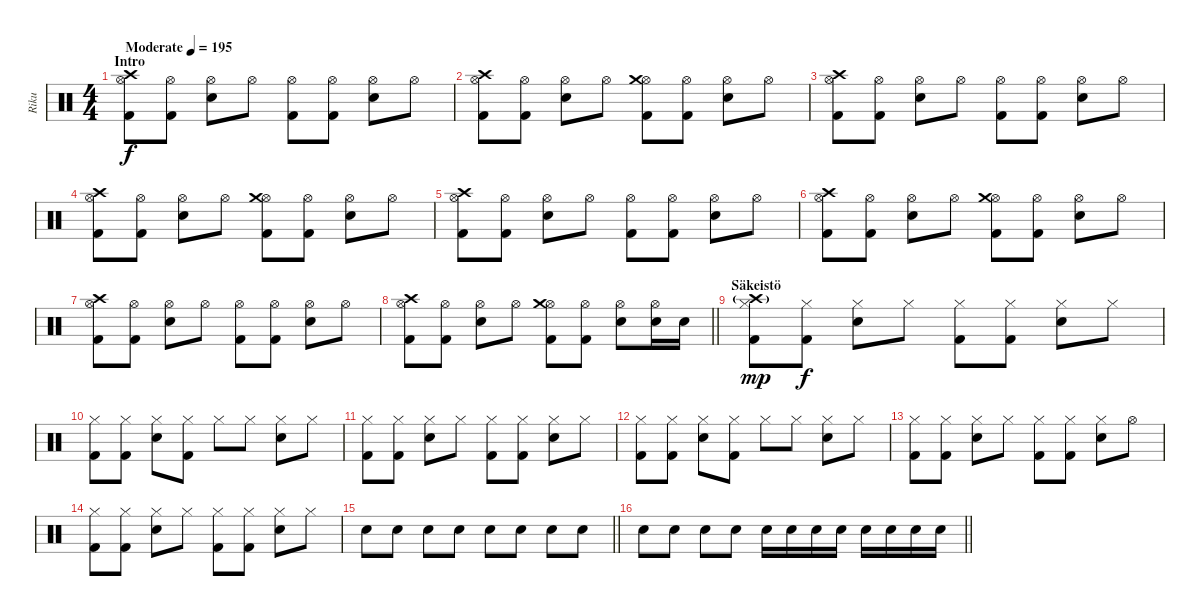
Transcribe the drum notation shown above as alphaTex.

\track ("Riku" "Riku") {instrument percussion}
\staff {score}
\articulation defaults
\ts (4 4)
\section ("" "Intro")
\tempo (195 "Moderate")
\clef neutral
\ks c
("Hi-Hat (open)" "Kick (hit) 2" "Crash high (hit)").8{dy f} ("Hi-Hat (open)" "Kick (hit) 2").8 ("Hi-Hat (open)" "Snare (hit) 2").8 "Hi-Hat (open)".8 ("Hi-Hat (open)" "Kick (hit) 2").8 ("Hi-Hat (open)" "Kick (hit) 2").8 ("Hi-Hat (open)" "Snare (hit) 2").8 "Hi-Hat (open)".8 |
("Hi-Hat (open)" "Kick (hit) 2" "Crash high (hit)").8 ("Hi-Hat (open)" "Kick (hit) 2").8 ("Hi-Hat (open)" "Snare (hit) 2").8 "Hi-Hat (open)".8 ("Hi-Hat (open)" "Kick (hit) 2" "Crash medium (hit)").8 ("Hi-Hat (open)" "Kick (hit) 2").8 ("Hi-Hat (open)" "Snare (hit) 2").8 "Hi-Hat (open)".8 |
("Hi-Hat (open)" "Kick (hit) 2" "Crash high (hit)").8 ("Hi-Hat (open)" "Kick (hit) 2").8 ("Hi-Hat (open)" "Snare (hit) 2").8 "Hi-Hat (open)".8 ("Hi-Hat (open)" "Kick (hit) 2").8 ("Hi-Hat (open)" "Kick (hit) 2").8 ("Hi-Hat (open)" "Snare (hit) 2").8 "Hi-Hat (open)".8 |
("Hi-Hat (open)" "Kick (hit) 2" "Crash high (hit)").8 ("Hi-Hat (open)" "Kick (hit) 2").8 ("Hi-Hat (open)" "Snare (hit) 2").8 "Hi-Hat (open)".8 ("Hi-Hat (open)" "Kick (hit) 2" "Crash medium (hit)").8 ("Hi-Hat (open)" "Kick (hit) 2").8 ("Hi-Hat (open)" "Snare (hit) 2").8 "Hi-Hat (open)".8 |
("Hi-Hat (open)" "Kick (hit) 2" "Crash high (hit)").8 ("Hi-Hat (open)" "Kick (hit) 2").8 ("Hi-Hat (open)" "Snare (hit) 2").8 "Hi-Hat (open)".8 ("Hi-Hat (open)" "Kick (hit) 2").8 ("Hi-Hat (open)" "Kick (hit) 2").8 ("Hi-Hat (open)" "Snare (hit) 2").8 "Hi-Hat (open)".8 |
("Hi-Hat (open)" "Kick (hit) 2" "Crash high (hit)").8 ("Hi-Hat (open)" "Kick (hit) 2").8 ("Hi-Hat (open)" "Snare (hit) 2").8 "Hi-Hat (open)".8 ("Hi-Hat (open)" "Kick (hit) 2" "Crash medium (hit)").8 ("Hi-Hat (open)" "Kick (hit) 2").8 ("Hi-Hat (open)" "Snare (hit) 2").8 "Hi-Hat (open)".8 |
("Hi-Hat (open)" "Kick (hit) 2" "Crash high (hit)").8 ("Hi-Hat (open)" "Kick (hit) 2").8 ("Hi-Hat (open)" "Snare (hit) 2").8 "Hi-Hat (open)".8 ("Hi-Hat (open)" "Kick (hit) 2").8 ("Hi-Hat (open)" "Kick (hit) 2").8 ("Hi-Hat (open)" "Snare (hit) 2").8 "Hi-Hat (open)".8 |
\barLineRight lightlight
("Hi-Hat (open)" "Kick (hit) 2" "Crash high (hit)").8 ("Hi-Hat (open)" "Kick (hit) 2").8 ("Hi-Hat (open)" "Snare (hit) 2").8 "Hi-Hat (open)".8 ("Hi-Hat (open)" "Kick (hit) 2" "Crash medium (hit)").8 ("Hi-Hat (open)" "Kick (hit) 2").8 ("Hi-Hat (open)" "Snare (hit) 2").8 ("Hi-Hat (open)" "Snare (hit) 2").16 "Snare (hit) 2".16 |
\section ("" "Säkeistö")
("Kick (hit) 2" "Hi-Hat (closed)" "Crash high (hit)"{g}).8{dy mp} ("Kick (hit) 2" "Hi-Hat (closed)").8{dy f} ("Snare (hit) 2" "Hi-Hat (closed)").8 "Hi-Hat (closed)".8 ("Kick (hit) 2" "Hi-Hat (closed)").8 ("Kick (hit) 2" "Hi-Hat (closed)").8 ("Snare (hit) 2" "Hi-Hat (closed)").8 "Hi-Hat (closed)".8 |
("Kick (hit) 2" "Hi-Hat (closed)").8 ("Kick (hit) 2" "Hi-Hat (closed)").8 ("Snare (hit) 2" "Hi-Hat (closed)").8 ("Kick (hit) 2" "Hi-Hat (closed)").8 "Hi-Hat (closed)".8 "Hi-Hat (closed)".8 ("Snare (hit) 2" "Hi-Hat (closed)").8 "Hi-Hat (closed)".8 |
("Kick (hit) 2" "Hi-Hat (closed)").8 ("Kick (hit) 2" "Hi-Hat (closed)").8 ("Snare (hit) 2" "Hi-Hat (closed)").8 "Hi-Hat (closed)".8 ("Kick (hit) 2" "Hi-Hat (closed)").8 ("Kick (hit) 2" "Hi-Hat (closed)").8 ("Snare (hit) 2" "Hi-Hat (closed)").8 "Hi-Hat (closed)".8 |
("Kick (hit) 2" "Hi-Hat (closed)").8 ("Kick (hit) 2" "Hi-Hat (closed)").8 ("Snare (hit) 2" "Hi-Hat (closed)").8 ("Kick (hit) 2" "Hi-Hat (closed)").8 "Hi-Hat (closed)".8 "Hi-Hat (closed)".8 ("Snare (hit) 2" "Hi-Hat (closed)").8 "Hi-Hat (closed)".8 |
("Kick (hit) 2" "Hi-Hat (closed)").8 ("Kick (hit) 2" "Hi-Hat (closed)").8 ("Snare (hit) 2" "Hi-Hat (closed)").8 "Hi-Hat (closed)".8 ("Kick (hit) 2" "Hi-Hat (closed)").8 ("Kick (hit) 2" "Hi-Hat (closed)").8 ("Snare (hit) 2" "Hi-Hat (closed)").8 "Hi-Hat (open)".8 |
("Kick (hit) 2" "Hi-Hat (closed)").8 ("Kick (hit) 2" "Hi-Hat (closed)").8 ("Snare (hit) 2" "Hi-Hat (closed)").8 "Hi-Hat (closed)".8 ("Kick (hit) 2" "Hi-Hat (closed)").8 ("Kick (hit) 2" "Hi-Hat (closed)").8 ("Snare (hit) 2" "Hi-Hat (closed)").8 "Hi-Hat (closed)".8 |
\barLineRight lightlight "Snare (hit) 2".8 "Snare (hit) 2".8 "Snare (hit) 2".8 "Snare (hit) 2".8 "Snare (hit) 2".8 "Snare (hit) 2".8 "Snare (hit) 2".8 "Snare (hit) 2".8
|
\barLineRight lightlight "Snare (hit) 2".8 "Snare (hit) 2".8 "Snare (hit) 2".8 "Snare (hit) 2".8 "Snare (hit) 2".16 "Snare (hit) 2".16 "Snare (hit) 2".16 "Snare (hit) 2".16 "Snare (hit) 2".16 "Snare (hit) 2".16 "Snare (hit) 2".16 "Snare (hit) 2".16
